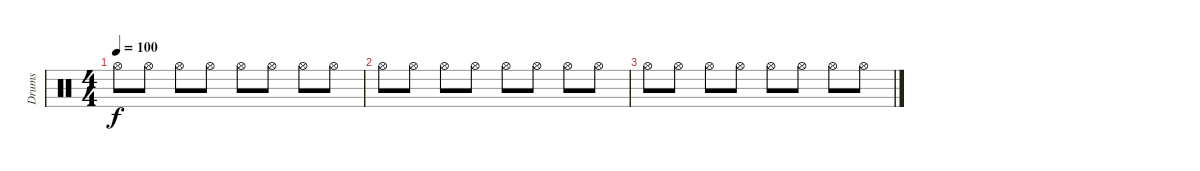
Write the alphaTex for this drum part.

\track ("Drums" "Drums") {instrument percussion}
\staff {score}
\articulation defaults
\ts (4 4)
\tempo 100
\clef neutral
\ks c "Hi-Hat (open)".8{dy f} "Hi-Hat (open)".8 "Hi-Hat (open)".8 "Hi-Hat (open)".8 "Hi-Hat (open)".8 "Hi-Hat (open)".8 "Hi-Hat (open)".8 "Hi-Hat (open)".8
|
"Hi-Hat (open)".8 "Hi-Hat (open)".8 "Hi-Hat (open)".8 "Hi-Hat (open)".8 "Hi-Hat (open)".8 "Hi-Hat (open)".8 "Hi-Hat (open)".8 "Hi-Hat (open)".8 |
"Hi-Hat (open)".8 "Hi-Hat (open)".8 "Hi-Hat (open)".8 "Hi-Hat (open)".8 "Hi-Hat (open)".8 "Hi-Hat (open)".8 "Hi-Hat (open)".8 "Hi-Hat (open)".8
